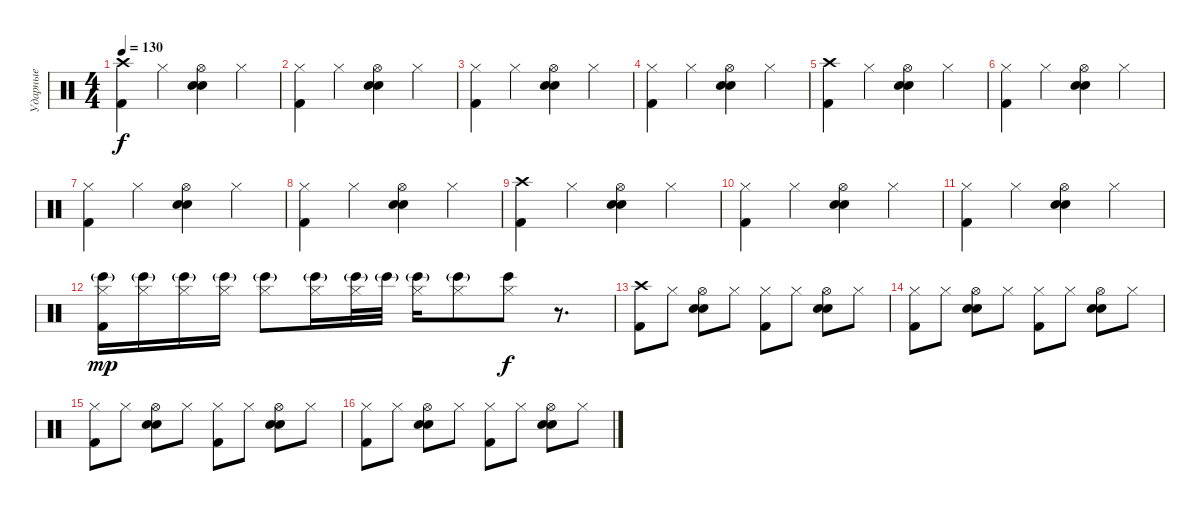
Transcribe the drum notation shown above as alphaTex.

\track ("Ударные" "Ударные") {instrument percussion}
\staff {score}
\articulation defaults
\ts (4 4)
\tempo 130
\clef neutral
\ks c
("Crash high (hit)" "Kick (hit) 2").4{dy f} "Hi-Hat (closed)".4 ("Hi-Hat (open)" "Hand Clap (hit)" "Snare (hit) 2").4 "Hi-Hat (closed)".4 |
("Hi-Hat (closed)" "Kick (hit) 2").4 "Hi-Hat (closed)".4 ("Hi-Hat (open)" "Hand Clap (hit)" "Snare (hit) 2").4 "Hi-Hat (closed)".4 |
("Hi-Hat (closed)" "Kick (hit) 2").4 "Hi-Hat (closed)".4 ("Hi-Hat (open)" "Hand Clap (hit)" "Snare (hit) 2").4 "Hi-Hat (closed)".4 |
("Hi-Hat (closed)" "Kick (hit) 2").4 "Hi-Hat (closed)".4 ("Hi-Hat (open)" "Hand Clap (hit)" "Snare (hit) 2").4 "Hi-Hat (closed)".4 |
("Crash high (hit)" "Kick (hit) 2").4 "Hi-Hat (closed)".4 ("Hi-Hat (open)" "Hand Clap (hit)" "Snare (hit) 2").4 "Hi-Hat (closed)".4 |
("Hi-Hat (closed)" "Kick (hit) 2").4 "Hi-Hat (closed)".4 ("Hi-Hat (open)" "Hand Clap (hit)" "Snare (hit) 2").4 "Hi-Hat (closed)".4 |
("Hi-Hat (closed)" "Kick (hit) 2").4 "Hi-Hat (closed)".4 ("Hi-Hat (open)" "Hand Clap (hit)" "Snare (hit) 2").4 "Hi-Hat (closed)".4 |
("Hi-Hat (closed)" "Kick (hit) 2").4 "Hi-Hat (closed)".4 ("Hi-Hat (open)" "Hand Clap (hit)" "Snare (hit) 2").4 "Hi-Hat (closed)".4 |
("Crash high (hit)" "Kick (hit) 2").4 "Hi-Hat (closed)".4 ("Hi-Hat (open)" "Hand Clap (hit)" "Snare (hit) 2").4 "Hi-Hat (closed)".4 |
("Hi-Hat (closed)" "Kick (hit) 2").4 "Hi-Hat (closed)".4 ("Hi-Hat (open)" "Hand Clap (hit)" "Snare (hit) 2").4 "Hi-Hat (closed)".4 |
("Hi-Hat (closed)" "Kick (hit) 2").4 "Hi-Hat (closed)".4 ("Hi-Hat (open)" "Hand Clap (hit)" "Snare (hit) 2").4 "Hi-Hat (closed)".4 |
("Bongo High (hit)"{g} "Hi-Hat (closed)" "Kick (hit) 2").16{dy mp} ("Bongo High (hit)"{g} "Hi-Hat (closed)").16 ("Bongo High (hit)"{g} "Hi-Hat (closed)").16 ("Bongo High (hit)"{g} "Hi-Hat (closed)").16 ("Bongo High (hit)"{g} "Hi-Hat (closed)").8 ("Bongo High (hit)"{g} "Hi-Hat (closed)").16 ("Bongo High (hit)"{g} "Hi-Hat (closed)").32 "Bongo High (hit)"{g}.32 ("Bongo High (hit)"{g} "Hi-Hat (closed)").16 ("Bongo High (hit)"{g} "Hi-Hat (closed)").8 ("Bongo High (hit)" "Hi-Hat (closed)").8{dy f} r.8{d} |
("Crash high (hit)" "Kick (hit) 2").8{volume 14} "Hi-Hat (closed)".8 ("Hi-Hat (open)" "Hand Clap (hit)" "Snare (hit) 2").8 "Hi-Hat (closed)".8 ("Hi-Hat (closed)" "Kick (hit) 2").8 "Hi-Hat (closed)".8 ("Hi-Hat (open)" "Hand Clap (hit)" "Snare (hit) 2").8 "Hi-Hat (closed)".8 |
("Hi-Hat (closed)" "Kick (hit) 2").8 "Hi-Hat (closed)".8 ("Hi-Hat (open)" "Hand Clap (hit)" "Snare (hit) 2").8 "Hi-Hat (closed)".8 ("Hi-Hat (closed)" "Kick (hit) 2").8 "Hi-Hat (closed)".8 ("Hi-Hat (open)" "Hand Clap (hit)" "Snare (hit) 2").8 "Hi-Hat (closed)".8 |
("Hi-Hat (closed)" "Kick (hit) 2").8 "Hi-Hat (closed)".8 ("Hi-Hat (open)" "Hand Clap (hit)" "Snare (hit) 2").8 "Hi-Hat (closed)".8 ("Hi-Hat (closed)" "Kick (hit) 2").8 "Hi-Hat (closed)".8 ("Hi-Hat (open)" "Hand Clap (hit)" "Snare (hit) 2").8 "Hi-Hat (closed)".8 |
("Hi-Hat (closed)" "Kick (hit) 2").8 "Hi-Hat (closed)".8 ("Hi-Hat (open)" "Hand Clap (hit)" "Snare (hit) 2").8 "Hi-Hat (closed)".8 ("Hi-Hat (closed)" "Kick (hit) 2").8 "Hi-Hat (closed)".8 ("Hi-Hat (open)" "Hand Clap (hit)" "Snare (hit) 2").8 "Hi-Hat (closed)".8
